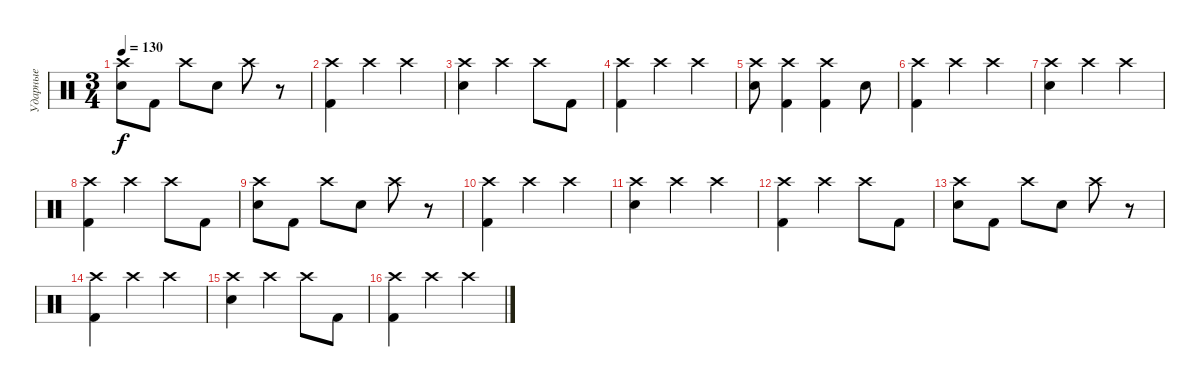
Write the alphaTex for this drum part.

\track ("Ударные" "Ударные") {instrument percussion}
\staff {score}
\articulation defaults
\ts (3 4)
\tempo 130
\clef neutral
\ks c
("Crash high (hit)" "Electric Snare (hit)").8{dy f} "Kick (hit) 2".8 "Crash high (hit)".8 "Electric Snare (hit)".8 "Crash high (hit)".8 r.8 |
("Crash high (hit)" "Kick (hit) 2").4 "Crash high (hit)".4 "Crash high (hit)".4 |
("Crash high (hit)" "Electric Snare (hit)").4 "Crash high (hit)".4 "Crash high (hit)".8 "Kick (hit) 2".8 |
("Crash high (hit)" "Kick (hit) 2").4 "Crash high (hit)".4 "Crash high (hit)".4 |
("Crash high (hit)" "Electric Snare (hit)").8 ("Crash high (hit)" "Kick (hit) 2").4 ("Crash high (hit)" "Kick (hit) 2").4 "Electric Snare (hit)".8 |
("Crash high (hit)" "Kick (hit) 2").4 "Crash high (hit)".4 "Crash high (hit)".4 |
("Crash high (hit)" "Electric Snare (hit)").4 "Crash high (hit)".4 "Crash high (hit)".4 |
("Crash high (hit)" "Kick (hit) 2").4 "Crash high (hit)".4 "Crash high (hit)".8 "Kick (hit) 2".8 |
("Crash high (hit)" "Electric Snare (hit)").8 "Kick (hit) 2".8 "Crash high (hit)".8 "Electric Snare (hit)".8 "Crash high (hit)".8 r.8 |
("Crash high (hit)" "Kick (hit) 2").4 "Crash high (hit)".4 "Crash high (hit)".4 |
("Crash high (hit)" "Electric Snare (hit)").4 "Crash high (hit)".4 "Crash high (hit)".4 |
("Crash high (hit)" "Kick (hit) 2").4 "Crash high (hit)".4 "Crash high (hit)".8 "Kick (hit) 2".8 |
("Crash high (hit)" "Electric Snare (hit)").8 "Kick (hit) 2".8 "Crash high (hit)".8 "Electric Snare (hit)".8 "Crash high (hit)".8 r.8 |
("Crash high (hit)" "Kick (hit) 2").4 "Crash high (hit)".4 "Crash high (hit)".4 |
("Crash high (hit)" "Electric Snare (hit)").4 "Crash high (hit)".4 "Crash high (hit)".8 "Kick (hit) 2".8 |
("Crash high (hit)" "Kick (hit) 2").4 "Crash high (hit)".4 "Crash high (hit)".4
